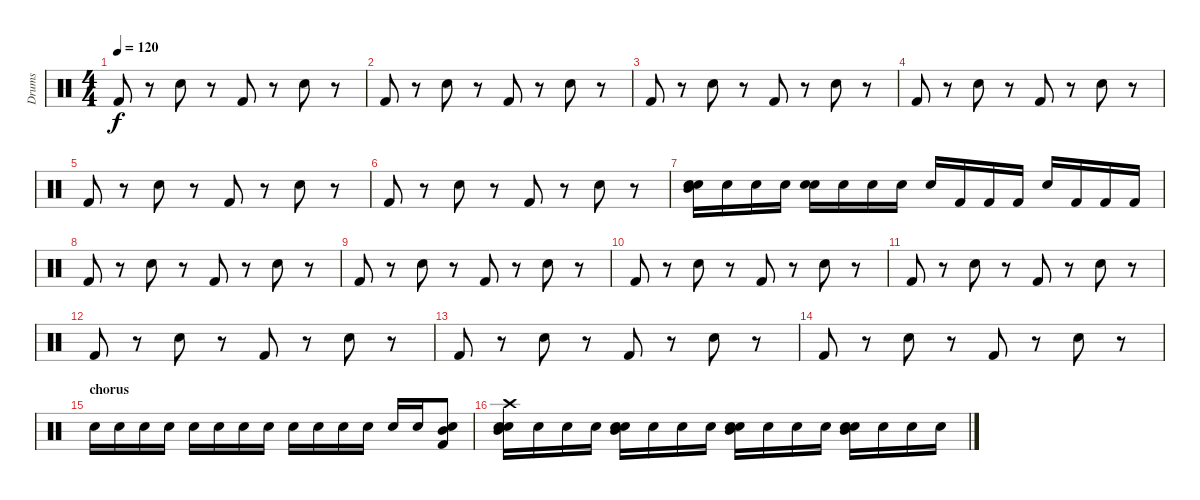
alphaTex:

\track ("Drums" "Drums") {instrument percussion}
\staff {score}
\articulation defaults
\ts (4 4)
\tempo 120
\clef neutral
\ks c "Kick (hit) 2".8{dy f}
r.8 "Snare (hit) 2".8 r.8 "Kick (hit) 2".8 r.8 "Snare (hit) 2".8 r.8 |
"Kick (hit) 2".8 r.8 "Snare (hit) 2".8 r.8 "Kick (hit) 2".8 r.8 "Snare (hit) 2".8 r.8 |
"Kick (hit) 2".8 r.8 "Snare (hit) 2".8 r.8 "Kick (hit) 2".8 r.8 "Snare (hit) 2".8 r.8 |
"Kick (hit) 2".8 r.8 "Snare (hit) 2".8 r.8 "Kick (hit) 2".8 r.8 "Snare (hit) 2".8 r.8 |
"Kick (hit) 2".8 r.8 "Snare (hit) 2".8 r.8 "Kick (hit) 2".8 r.8 "Snare (hit) 2".8 r.8 |
"Kick (hit) 2".8 r.8 "Snare (hit) 2".8 r.8 "Kick (hit) 2".8 r.8 "Snare (hit) 2".8 r.8 |
("Electric Snare (hit)" "Snare (hit) 2" "Mid Tom (hit)").16 "Snare (hit) 2".16 "Snare (hit) 2".16 "Snare (hit) 2".16 ("Snare (hit) 2" "Electric Snare (hit)").16 "Snare (hit) 2".16 "Snare (hit) 2".16 "Snare (hit) 2".16 "Snare (hit) 2".16 "Kick (hit) 2".16 "Kick (hit) 2".16 "Kick (hit) 2".16 "Snare (hit) 2".16 "Kick (hit) 2".16 "Kick (hit) 2".16 "Kick (hit) 2".16 |
"Kick (hit) 2".8 r.8 "Snare (hit) 2".8 r.8 "Kick (hit) 2".8 r.8 "Snare (hit) 2".8 r.8 |
"Kick (hit) 2".8 r.8 "Snare (hit) 2".8 r.8 "Kick (hit) 2".8 r.8 "Snare (hit) 2".8 r.8 |
"Kick (hit) 2".8 r.8 "Snare (hit) 2".8 r.8 "Kick (hit) 2".8 r.8 "Snare (hit) 2".8 r.8 |
"Kick (hit) 2".8 r.8 "Snare (hit) 2".8 r.8 "Kick (hit) 2".8 r.8 "Snare (hit) 2".8 r.8 |
"Kick (hit) 2".8 r.8 "Snare (hit) 2".8 r.8 "Kick (hit) 2".8 r.8 "Snare (hit) 2".8 r.8 |
"Kick (hit) 2".8 r.8 "Snare (hit) 2".8 r.8 "Kick (hit) 2".8 r.8 "Snare (hit) 2".8 r.8 |
"Kick (hit) 2".8 r.8 "Snare (hit) 2".8 r.8 "Kick (hit) 2".8 r.8 "Snare (hit) 2".8 r.8 |
\section ("" "chorus")
"Snare (hit) 2".16 "Snare (hit) 2".16 "Snare (hit) 2".16 "Snare (hit) 2".16 "Snare (hit) 2".16 "Snare (hit) 2".16 "Snare (hit) 2".16 "Snare (hit) 2".16 "Snare (hit) 2".16 "Snare (hit) 2".16 "Snare (hit) 2".16 "Snare (hit) 2".16 "Snare (hit) 2".16 "Snare (hit) 2".16 ("Electric Snare (hit)" "Mid Tom (hit)" "Kick (hit) 2").8 |
("Electric Snare (hit)" "Snare (hit) 2" "Mid Tom (hit)" "Crash high (hit)").16 "Snare (hit) 2".16 "Snare (hit) 2".16 "Snare (hit) 2".16 ("Mid Tom (hit)" "Snare (hit) 2" "Electric Snare (hit)").16 "Snare (hit) 2".16 "Snare (hit) 2".16 "Snare (hit) 2".16 ("Mid Tom (hit)" "Snare (hit) 2" "Electric Snare (hit)").16 "Snare (hit) 2".16 "Snare (hit) 2".16 "Snare (hit) 2".16 ("Mid Tom (hit)" "Snare (hit) 2" "Electric Snare (hit)").16 "Snare (hit) 2".16 "Snare (hit) 2".16 "Snare (hit) 2".16
